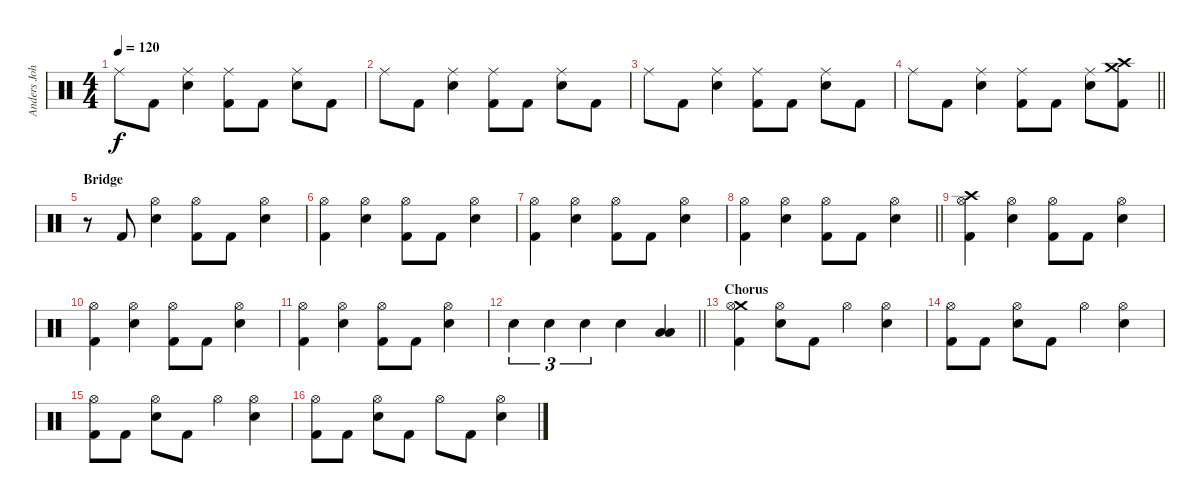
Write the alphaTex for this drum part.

\track ("Anders Johansson" "Anders Joh") {instrument percussion}
\staff {score}
\articulation defaults
\ts (4 4)
\tempo 120
\clef neutral
\ks c "Ride (middle)".8{dy f} "Kick (hit) 2".8
("Ride (middle)" "Snare (hit) 2").4 ("Ride (middle)" "Kick (hit) 2").8 "Kick (hit) 2".8 ("Ride (middle)" "Snare (hit) 2").8 "Kick (hit) 2".8 |
"Ride (middle)".8 "Kick (hit) 2".8 ("Ride (middle)" "Snare (hit) 2").4 ("Ride (middle)" "Kick (hit) 2").8 "Kick (hit) 2".8 ("Ride (middle)" "Snare (hit) 2").8 "Kick (hit) 2".8 |
"Ride (middle)".8 "Kick (hit) 2".8 ("Ride (middle)" "Snare (hit) 2").4 ("Ride (middle)" "Kick (hit) 2").8 "Kick (hit) 2".8 ("Ride (middle)" "Snare (hit) 2").8 "Kick (hit) 2".8 |
\barLineRight lightlight "Ride (middle)".8 "Kick (hit) 2".8
("Ride (middle)" "Snare (hit) 2").4 ("Ride (middle)" "Kick (hit) 2").8 "Kick (hit) 2".8 ("Ride (middle)" "Snare (hit) 2").8 ("Crash high (hit)" "Crash medium (hit)" "Kick (hit) 2").8 |
\section ("" "Bridge")
r.8 "Kick (hit) 2".8 ("Hi-Hat (open)" "Snare (hit) 2").4 ("Hi-Hat (open)" "Kick (hit) 2").8 "Kick (hit) 2".8 ("Hi-Hat (open)" "Snare (hit) 2").4 |
("Hi-Hat (open)" "Kick (hit) 2").4 ("Hi-Hat (open)" "Snare (hit) 2").4 ("Hi-Hat (open)" "Kick (hit) 2").8 "Kick (hit) 2".8 ("Hi-Hat (open)" "Snare (hit) 2").4 |
("Hi-Hat (open)" "Kick (hit) 2").4 ("Hi-Hat (open)" "Snare (hit) 2").4 ("Hi-Hat (open)" "Kick (hit) 2").8 "Kick (hit) 2".8 ("Hi-Hat (open)" "Snare (hit) 2").4 |
\barLineRight lightlight
("Hi-Hat (open)" "Kick (hit) 2").4 ("Hi-Hat (open)" "Snare (hit) 2").4 ("Hi-Hat (open)" "Kick (hit) 2").8 "Kick (hit) 2".8 ("Hi-Hat (open)" "Snare (hit) 2").4 |
("Crash high (hit)" "Hi-Hat (open)" "Kick (hit) 2").4 ("Hi-Hat (open)" "Snare (hit) 2").4 ("Hi-Hat (open)" "Kick (hit) 2").8 "Kick (hit) 2".8 ("Hi-Hat (open)" "Snare (hit) 2").4 |
("Hi-Hat (open)" "Kick (hit) 2").4 ("Hi-Hat (open)" "Snare (hit) 2").4 ("Hi-Hat (open)" "Kick (hit) 2").8 "Kick (hit) 2".8 ("Hi-Hat (open)" "Snare (hit) 2").4 |
("Hi-Hat (open)" "Kick (hit) 2").4 ("Hi-Hat (open)" "Snare (hit) 2").4 ("Hi-Hat (open)" "Kick (hit) 2").8 "Kick (hit) 2".8 ("Hi-Hat (open)" "Snare (hit) 2").4 |
\barLineRight lightlight "Snare (hit) 2".4{tu (3 2)} "Snare (hit) 2".4{tu (3 2)} "Snare (hit) 2".4{tu (3 2)} "Snare (hit) 2".4
("Low Tom (hit)" "Low Floor Tom (hit)").4 |
\section ("" "Chorus")
("Crash medium (hit)" "Hi-Hat (open)" "Kick (hit) 2").4 ("Hi-Hat (open)" "Snare (hit) 2").8 "Kick (hit) 2".8 "Hi-Hat (open)".4 ("Hi-Hat (open)" "Snare (hit) 2").4 |
("Hi-Hat (open)" "Kick (hit) 2").8 "Kick (hit) 2".8 ("Hi-Hat (open)" "Snare (hit) 2").8 "Kick (hit) 2".8 "Hi-Hat (open)".4 ("Hi-Hat (open)" "Snare (hit) 2").4 |
("Hi-Hat (open)" "Kick (hit) 2").8 "Kick (hit) 2".8 ("Hi-Hat (open)" "Snare (hit) 2").8 "Kick (hit) 2".8 "Hi-Hat (open)".4 ("Hi-Hat (open)" "Snare (hit) 2").4 |
("Hi-Hat (open)" "Kick (hit) 2").8 "Kick (hit) 2".8 ("Hi-Hat (open)" "Snare (hit) 2").8 "Kick (hit) 2".8 "Hi-Hat (open)".8 "Kick (hit) 2".8 ("Hi-Hat (open)" "Snare (hit) 2").4
